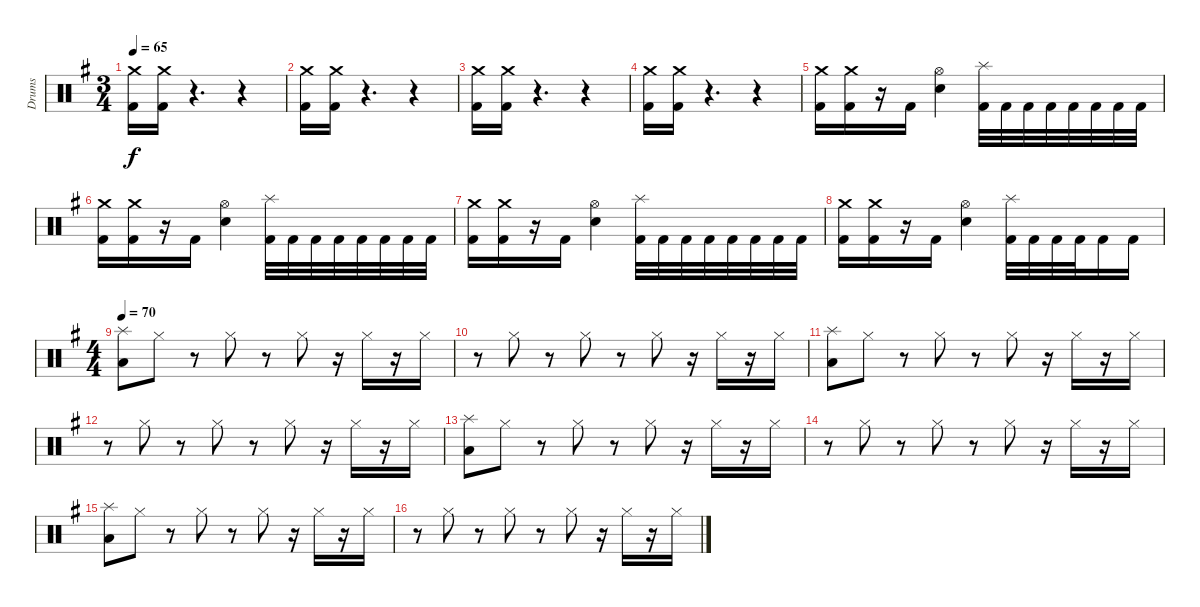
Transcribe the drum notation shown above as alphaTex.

\track ("Drums" "Drums") {instrument percussion}
\staff {score}
\articulation defaults
\ts (3 4)
\tempo 65
\clef neutral
\ks g
("Crash medium (hit)" "Kick (hit) 2").16{dy f} ("Crash medium (hit)" "Kick (hit) 2").16 r.4{d} r.4 |
("Crash medium (hit)" "Kick (hit) 2").16 ("Crash medium (hit)" "Kick (hit) 2").16 r.4{d} r.4 |
("Crash medium (hit)" "Kick (hit) 2").16 ("Crash medium (hit)" "Kick (hit) 2").16 r.4{d} r.4 |
("Crash medium (hit)" "Kick (hit) 2").16 ("Crash medium (hit)" "Kick (hit) 2").16 r.4{d} r.4 |
("Crash medium (hit)" "Kick (hit) 2").16 ("Crash medium (hit)" "Kick (hit) 2").16 r.16 "Kick (hit) 2".16 ("Hi-Hat (open)" "Electric Snare (hit)").4 ("Splash (hit)" "Kick (hit) 2").32 "Kick (hit) 2".32 "Kick (hit) 2".32 "Kick (hit) 2".32 "Kick (hit) 2".32 "Kick (hit) 2".32 "Kick (hit) 2".32 "Kick (hit) 2".32 |
("Crash medium (hit)" "Kick (hit) 2").16 ("Crash medium (hit)" "Kick (hit) 2").16 r.16 "Kick (hit) 2".16 ("Hi-Hat (open)" "Electric Snare (hit)").4 ("Splash (hit)" "Kick (hit) 2").32 "Kick (hit) 2".32 "Kick (hit) 2".32 "Kick (hit) 2".32 "Kick (hit) 2".32 "Kick (hit) 2".32 "Kick (hit) 2".32 "Kick (hit) 2".32 |
("Crash medium (hit)" "Kick (hit) 2").16 ("Crash medium (hit)" "Kick (hit) 2").16 r.16 "Kick (hit) 2".16 ("Hi-Hat (open)" "Electric Snare (hit)").4 ("Splash (hit)" "Kick (hit) 2").32 "Kick (hit) 2".32 "Kick (hit) 2".32 "Kick (hit) 2".32 "Kick (hit) 2".32 "Kick (hit) 2".32 "Kick (hit) 2".32 "Kick (hit) 2".32 |
("Crash medium (hit)" "Kick (hit) 2").16 ("Crash medium (hit)" "Kick (hit) 2").16 r.16 "Kick (hit) 2".16 ("Hi-Hat (open)" "Electric Snare (hit)").4 ("Splash (hit)" "Kick (hit) 2").32 "Kick (hit) 2".32 "Kick (hit) 2".32 "Kick (hit) 2".32 "Kick (hit) 2".16 "Kick (hit) 2".16 |
\ts (4 4)
\tempo 70
("Splash (hit)" "Low Floor Tom (hit)").8 "Hi-Hat (closed)".8 r.8 "Hi-Hat (closed)".8 r.8 "Hi-Hat (closed)".8 r.16 "Hi-Hat (closed)".16 r.16 "Hi-Hat (closed)".16 |
r.8 "Hi-Hat (closed)".8 r.8 "Hi-Hat (closed)".8 r.8 "Hi-Hat (closed)".8 r.16 "Hi-Hat (closed)".16 r.16 "Hi-Hat (closed)".16 |
("Splash (hit)" "Low Floor Tom (hit)").8 "Hi-Hat (closed)".8 r.8 "Hi-Hat (closed)".8 r.8 "Hi-Hat (closed)".8 r.16 "Hi-Hat (closed)".16 r.16 "Hi-Hat (closed)".16 |
r.8 "Hi-Hat (closed)".8 r.8 "Hi-Hat (closed)".8 r.8 "Hi-Hat (closed)".8 r.16 "Hi-Hat (closed)".16 r.16 "Hi-Hat (closed)".16 |
("Splash (hit)" "Low Floor Tom (hit)").8 "Hi-Hat (closed)".8 r.8 "Hi-Hat (closed)".8 r.8 "Hi-Hat (closed)".8 r.16 "Hi-Hat (closed)".16 r.16 "Hi-Hat (closed)".16 |
r.8 "Hi-Hat (closed)".8 r.8 "Hi-Hat (closed)".8 r.8 "Hi-Hat (closed)".8 r.16 "Hi-Hat (closed)".16 r.16 "Hi-Hat (closed)".16 |
("Splash (hit)" "Low Floor Tom (hit)").8 "Hi-Hat (closed)".8 r.8 "Hi-Hat (closed)".8 r.8 "Hi-Hat (closed)".8 r.16 "Hi-Hat (closed)".16 r.16 "Hi-Hat (closed)".16 |
r.8 "Hi-Hat (closed)".8 r.8 "Hi-Hat (closed)".8 r.8 "Hi-Hat (closed)".8 r.16 "Hi-Hat (closed)".16 r.16 "Hi-Hat (closed)".16
